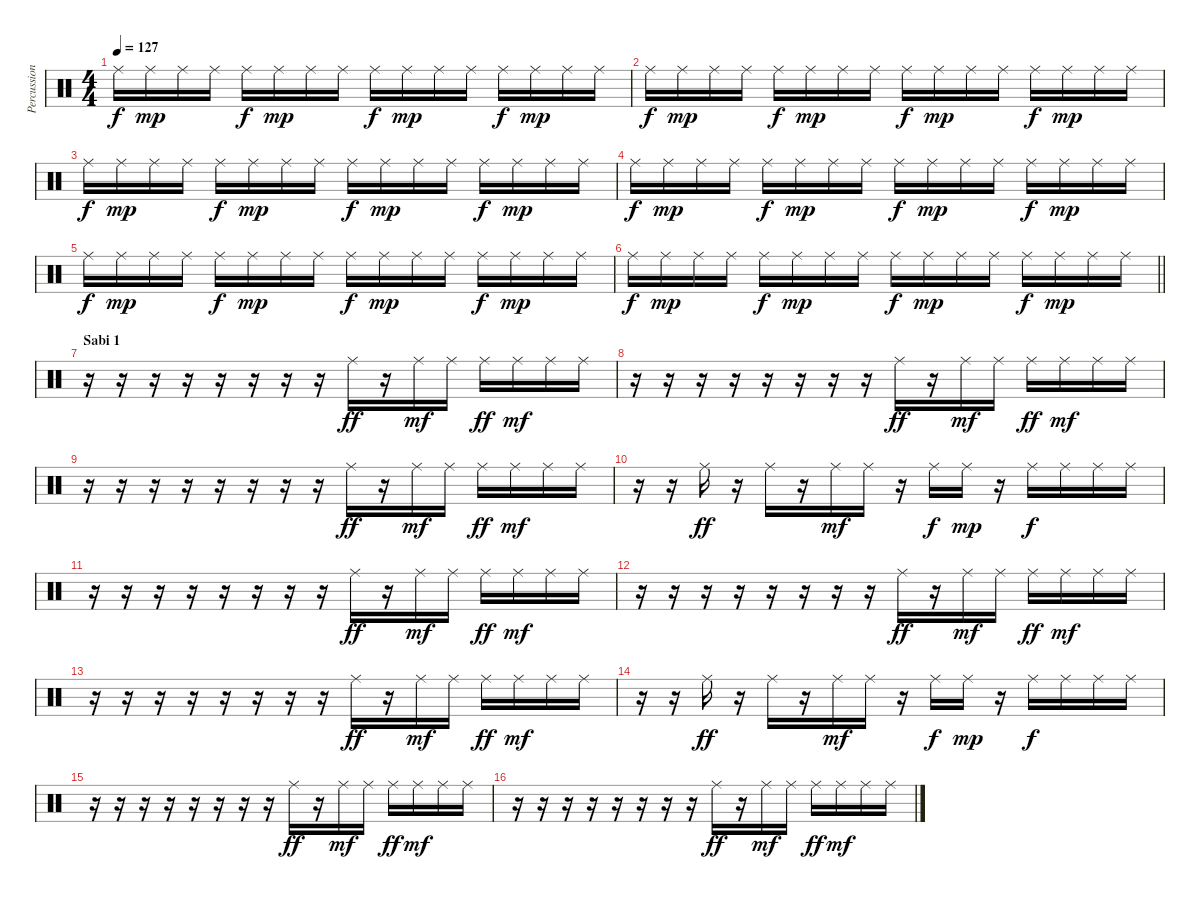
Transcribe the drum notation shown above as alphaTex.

\track ("Percussion" "Percussion") {instrument percussion}
\staff {score}
\articulation defaults
\ts (4 4)
\tempo 127
\clef neutral
\ks c "Ride (middle)".16{dy f} "Ride (middle)".16{dy mp} "Ride (middle)".16 "Ride (middle)".16 "Ride (middle)".16{dy f} "Ride (middle)".16{dy mp} "Ride (middle)".16 "Ride (middle)".16 "Ride (middle)".16{dy f} "Ride (middle)".16{dy mp} "Ride (middle)".16 "Ride (middle)".16 "Ride (middle)".16{dy f} "Ride (middle)".16{dy mp} "Ride (middle)".16 "Ride (middle)".16
|
"Ride (middle)".16{dy f} "Ride (middle)".16{dy mp} "Ride (middle)".16 "Ride (middle)".16 "Ride (middle)".16{dy f} "Ride (middle)".16{dy mp} "Ride (middle)".16 "Ride (middle)".16 "Ride (middle)".16{dy f} "Ride (middle)".16{dy mp} "Ride (middle)".16 "Ride (middle)".16 "Ride (middle)".16{dy f} "Ride (middle)".16{dy mp} "Ride (middle)".16 "Ride (middle)".16 |
"Ride (middle)".16{dy f} "Ride (middle)".16{dy mp} "Ride (middle)".16 "Ride (middle)".16 "Ride (middle)".16{dy f} "Ride (middle)".16{dy mp} "Ride (middle)".16 "Ride (middle)".16 "Ride (middle)".16{dy f} "Ride (middle)".16{dy mp} "Ride (middle)".16 "Ride (middle)".16 "Ride (middle)".16{dy f} "Ride (middle)".16{dy mp} "Ride (middle)".16 "Ride (middle)".16 |
"Ride (middle)".16{dy f} "Ride (middle)".16{dy mp} "Ride (middle)".16 "Ride (middle)".16 "Ride (middle)".16{dy f} "Ride (middle)".16{dy mp} "Ride (middle)".16 "Ride (middle)".16 "Ride (middle)".16{dy f} "Ride (middle)".16{dy mp} "Ride (middle)".16 "Ride (middle)".16 "Ride (middle)".16{dy f} "Ride (middle)".16{dy mp} "Ride (middle)".16 "Ride (middle)".16 |
"Ride (middle)".16{dy f} "Ride (middle)".16{dy mp} "Ride (middle)".16 "Ride (middle)".16 "Ride (middle)".16{dy f} "Ride (middle)".16{dy mp} "Ride (middle)".16 "Ride (middle)".16 "Ride (middle)".16{dy f} "Ride (middle)".16{dy mp} "Ride (middle)".16 "Ride (middle)".16 "Ride (middle)".16{dy f} "Ride (middle)".16{dy mp} "Ride (middle)".16 "Ride (middle)".16 |
\barLineRight lightlight "Ride (middle)".16{dy f} "Ride (middle)".16{dy mp} "Ride (middle)".16 "Ride (middle)".16 "Ride (middle)".16{dy f} "Ride (middle)".16{dy mp} "Ride (middle)".16 "Ride (middle)".16 "Ride (middle)".16{dy f} "Ride (middle)".16{dy mp} "Ride (middle)".16 "Ride (middle)".16 "Ride (middle)".16{dy f} "Ride (middle)".16{dy mp} "Ride (middle)".16 "Ride (middle)".16
|
\section ("" "Sabi 1")
r.16 r.16 r.16 r.16 r.16 r.16 r.16 r.16 "Ride (middle)".16{dy ff} r.16 "Ride (middle)".16{dy mf} "Ride (middle)".16 "Ride (middle)".16{dy ff} "Ride (middle)".16{dy mf} "Ride (middle)".16 "Ride (middle)".16 |
r.16 r.16 r.16 r.16 r.16 r.16 r.16 r.16 "Ride (middle)".16{dy ff} r.16 "Ride (middle)".16{dy mf} "Ride (middle)".16 "Ride (middle)".16{dy ff} "Ride (middle)".16{dy mf} "Ride (middle)".16 "Ride (middle)".16 |
r.16 r.16 r.16 r.16 r.16 r.16 r.16 r.16 "Ride (middle)".16{dy ff} r.16 "Ride (middle)".16{dy mf} "Ride (middle)".16 "Ride (middle)".16{dy ff} "Ride (middle)".16{dy mf} "Ride (middle)".16 "Ride (middle)".16 |
r.16 r.16 "Ride (middle)".16{dy ff} r.16 "Ride (middle)".16 r.16 "Ride (middle)".16{dy mf} "Ride (middle)".16 r.16 "Ride (middle)".16{dy f} "Ride (middle)".16{dy mp} r.16 "Ride (middle)".16{dy f} "Ride (middle)".16 "Ride (middle)".16 "Ride (middle)".16 |
r.16 r.16 r.16 r.16 r.16 r.16 r.16 r.16 "Ride (middle)".16{dy ff} r.16 "Ride (middle)".16{dy mf} "Ride (middle)".16 "Ride (middle)".16{dy ff} "Ride (middle)".16{dy mf} "Ride (middle)".16 "Ride (middle)".16 |
r.16 r.16 r.16 r.16 r.16 r.16 r.16 r.16 "Ride (middle)".16{dy ff} r.16 "Ride (middle)".16{dy mf} "Ride (middle)".16 "Ride (middle)".16{dy ff} "Ride (middle)".16{dy mf} "Ride (middle)".16 "Ride (middle)".16 |
r.16 r.16 r.16 r.16 r.16 r.16 r.16 r.16 "Ride (middle)".16{dy ff} r.16 "Ride (middle)".16{dy mf} "Ride (middle)".16 "Ride (middle)".16{dy ff} "Ride (middle)".16{dy mf} "Ride (middle)".16 "Ride (middle)".16 |
r.16 r.16 "Ride (middle)".16{dy ff} r.16 "Ride (middle)".16 r.16 "Ride (middle)".16{dy mf} "Ride (middle)".16 r.16 "Ride (middle)".16{dy f} "Ride (middle)".16{dy mp} r.16 "Ride (middle)".16{dy f} "Ride (middle)".16 "Ride (middle)".16 "Ride (middle)".16 |
r.16 r.16 r.16 r.16 r.16 r.16 r.16 r.16 "Ride (middle)".16{dy ff} r.16 "Ride (middle)".16{dy mf} "Ride (middle)".16 "Ride (middle)".16{dy ff} "Ride (middle)".16{dy mf} "Ride (middle)".16 "Ride (middle)".16 |
r.16 r.16 r.16 r.16 r.16 r.16 r.16 r.16 "Ride (middle)".16{dy ff} r.16 "Ride (middle)".16{dy mf} "Ride (middle)".16 "Ride (middle)".16{dy ff} "Ride (middle)".16{dy mf} "Ride (middle)".16 "Ride (middle)".16
